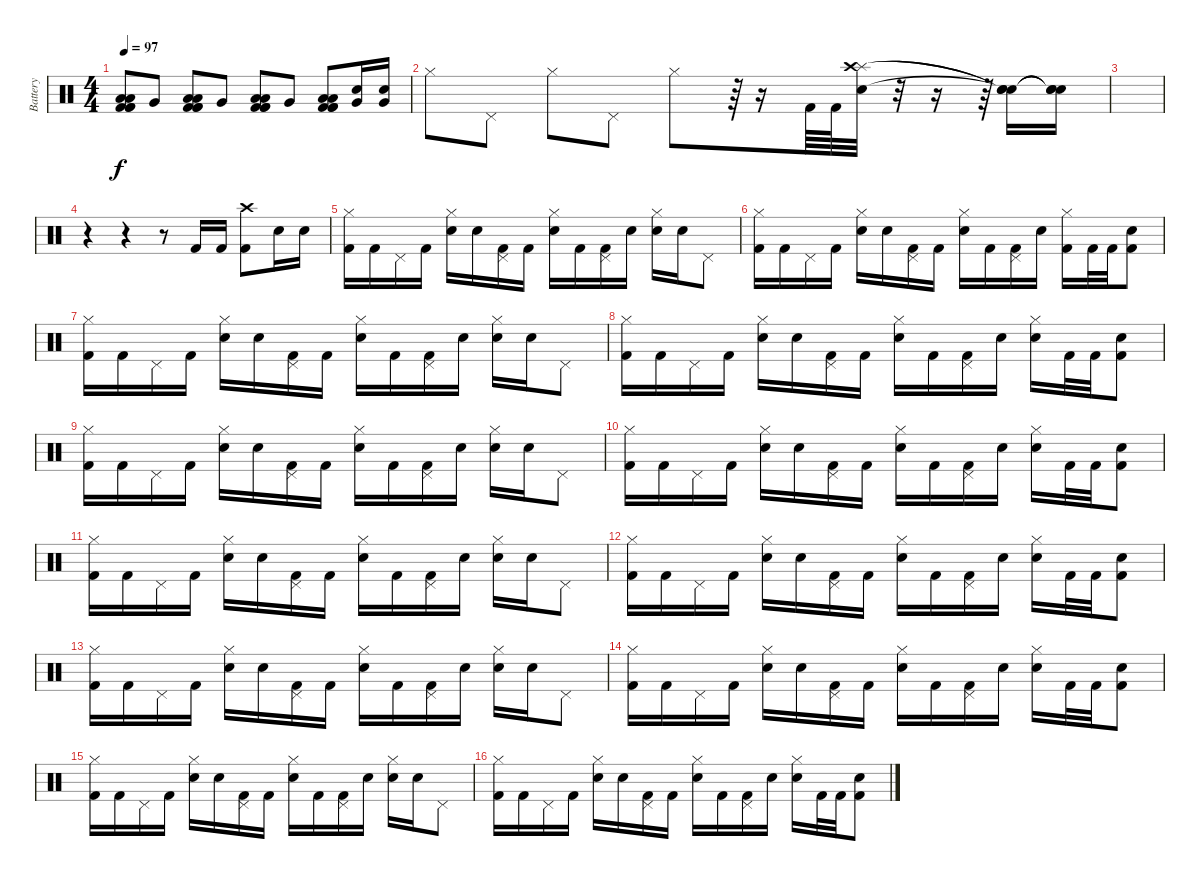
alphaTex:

\track ("Battery" "Battery") {instrument percussion}
\staff {score}
\articulation defaults
\ts (4 4)
\tempo 97
\clef neutral
\ks c
("Low Tom (hit)" "Kick (hit) 2" "Low Tom (hit)" "Kick (hit) 2" "Kick (hit) 2").8{dy f} "Very Low Tom (hit)".8 ("Low Floor Tom (hit)" "Kick (hit) 2" "Low Tom (hit)" "Kick (hit) 2" "Kick (hit) 2").8 "Very Low Tom (hit)".8 ("Low Tom (hit)" "Kick (hit) 2" "Low Tom (hit)" "Kick (hit) 2" "Kick (hit) 2").8 "Very Low Tom (hit)".8 ("Low Tom (hit)" "Kick (hit) 2" "Low Tom (hit)" "Kick (hit) 2" "Kick (hit) 2").8 ("Very Low Tom (hit)" "Snare (hit) 2").16 ("Very Low Tom (hit)" "Snare (hit) 2").16 |
"Hi-Hat (closed)".8 "Pedal Hi-Hat (hit)".8 "Hi-Hat (closed)".8 "Pedal Hi-Hat (hit)".8 "Hi-Hat (closed)".8 r.64 r.16 "Kick (hit) 2".64 "Kick (hit) 2".64 ("Snare (hit) 2" "Splash (hit)" "Crash high (hit)").32 r.32 r.16 r.64 ("Snare (hit)"{t} "Snare (hit)"{t} "Snare (hit)"{t}).16 ("Snare (hit)"{t} "Snare (hit)"{t} "Snare (hit)"{t}).16 |
|
r.4 r.4 r.8 "Kick (hit) 2".16 "Kick (hit) 2".16 ("Kick (hit) 2" "Crash high (hit)").8 "Electric Snare (hit)".16 "Electric Snare (hit)".16 |
("Kick (hit) 2" "Hi-Hat (closed)").16 "Kick (hit) 2".16 "Pedal Hi-Hat (hit)".16 "Kick (hit) 2".16 ("Snare (hit) 2" "Hi-Hat (closed)").16 "Snare (hit)".16 ("Kick (hit) 2" "Pedal Hi-Hat (hit)").16 "Kick (hit) 2".16 ("Snare (hit)" "Hi-Hat (closed)").16 "Kick (hit) 2".16 ("Kick (hit) 2" "Pedal Hi-Hat (hit)").16 "Snare (hit)".16 ("Snare (hit) 2" "Hi-Hat (closed)").16 "Snare (hit)".16 "Pedal Hi-Hat (hit)".8 |
("Kick (hit) 2" "Hi-Hat (closed)").16 "Kick (hit) 2".16 "Pedal Hi-Hat (hit)".16 "Kick (hit) 2".16 ("Snare (hit) 2" "Hi-Hat (closed)").16 "Snare (hit)".16 ("Kick (hit) 2" "Pedal Hi-Hat (hit)").16 "Kick (hit) 2".16 ("Snare (hit)" "Hi-Hat (closed)").16 "Kick (hit) 2".16 ("Kick (hit) 2" "Pedal Hi-Hat (hit)").16 "Snare (hit)".16 ("Kick (hit) 2" "Hi-Hat (closed)").16 "Kick (hit) 2".32 "Kick (hit) 2".32 ("Kick (hit) 2" "Snare (hit) 2").8 |
("Kick (hit) 2" "Hi-Hat (closed)").16 "Kick (hit) 2".16 "Pedal Hi-Hat (hit)".16 "Kick (hit) 2".16 ("Snare (hit) 2" "Hi-Hat (closed)").16 "Snare (hit)".16 ("Kick (hit) 2" "Pedal Hi-Hat (hit)").16 "Kick (hit) 2".16 ("Snare (hit)" "Hi-Hat (closed)").16 "Kick (hit) 2".16 ("Kick (hit) 2" "Pedal Hi-Hat (hit)").16 "Snare (hit)".16 ("Snare (hit) 2" "Hi-Hat (closed)").16 "Snare (hit)".16 "Pedal Hi-Hat (hit)".8 |
("Kick (hit) 2" "Hi-Hat (closed)").16 "Kick (hit) 2".16 "Pedal Hi-Hat (hit)".16 "Kick (hit) 2".16 ("Snare (hit) 2" "Hi-Hat (closed)").16 "Snare (hit)".16 ("Kick (hit) 2" "Pedal Hi-Hat (hit)").16 "Kick (hit) 2".16 ("Snare (hit)" "Hi-Hat (closed)").16 "Kick (hit) 2".16 ("Kick (hit) 2" "Pedal Hi-Hat (hit)").16 "Snare (hit)".16 ("Snare (hit) 2" "Hi-Hat (closed)").16 "Kick (hit) 2".32 "Kick (hit) 2".32 ("Kick (hit) 2" "Snare (hit) 2").8 |
("Kick (hit) 2" "Hi-Hat (closed)").16 "Kick (hit) 2".16 "Pedal Hi-Hat (hit)".16 "Kick (hit) 2".16 ("Snare (hit) 2" "Hi-Hat (closed)").16 "Snare (hit)".16 ("Kick (hit) 2" "Pedal Hi-Hat (hit)").16 "Kick (hit) 2".16 ("Snare (hit)" "Hi-Hat (closed)").16 "Kick (hit) 2".16 ("Kick (hit) 2" "Pedal Hi-Hat (hit)").16 "Snare (hit)".16 ("Snare (hit) 2" "Hi-Hat (closed)").16 "Snare (hit)".16 "Pedal Hi-Hat (hit)".8 |
("Kick (hit) 2" "Hi-Hat (closed)").16 "Kick (hit) 2".16 "Pedal Hi-Hat (hit)".16 "Kick (hit) 2".16 ("Snare (hit) 2" "Hi-Hat (closed)").16 "Snare (hit)".16 ("Kick (hit) 2" "Pedal Hi-Hat (hit)").16 "Kick (hit) 2".16 ("Snare (hit)" "Hi-Hat (closed)").16 "Kick (hit) 2".16 ("Kick (hit) 2" "Pedal Hi-Hat (hit)").16 "Snare (hit)".16 ("Snare (hit) 2" "Hi-Hat (closed)").16 "Kick (hit) 2".32 "Kick (hit) 2".32 ("Kick (hit) 2" "Snare (hit) 2").8 |
("Kick (hit) 2" "Hi-Hat (closed)").16 "Kick (hit) 2".16 "Pedal Hi-Hat (hit)".16 "Kick (hit) 2".16 ("Snare (hit) 2" "Hi-Hat (closed)").16 "Snare (hit)".16 ("Kick (hit) 2" "Pedal Hi-Hat (hit)").16 "Kick (hit) 2".16 ("Snare (hit)" "Hi-Hat (closed)").16 "Kick (hit) 2".16 ("Kick (hit) 2" "Pedal Hi-Hat (hit)").16 "Snare (hit)".16 ("Snare (hit) 2" "Hi-Hat (closed)").16 "Snare (hit)".16 "Pedal Hi-Hat (hit)".8 |
("Kick (hit) 2" "Hi-Hat (closed)").16 "Kick (hit) 2".16 "Pedal Hi-Hat (hit)".16 "Kick (hit) 2".16 ("Snare (hit) 2" "Hi-Hat (closed)").16 "Snare (hit)".16 ("Kick (hit) 2" "Pedal Hi-Hat (hit)").16 "Kick (hit) 2".16 ("Snare (hit)" "Hi-Hat (closed)").16 "Kick (hit) 2".16 ("Kick (hit) 2" "Pedal Hi-Hat (hit)").16 "Snare (hit)".16 ("Snare (hit) 2" "Hi-Hat (closed)").16 "Kick (hit) 2".32 "Kick (hit) 2".32 ("Kick (hit) 2" "Snare (hit) 2").8 |
("Kick (hit) 2" "Hi-Hat (closed)").16 "Kick (hit) 2".16 "Pedal Hi-Hat (hit)".16 "Kick (hit) 2".16 ("Snare (hit) 2" "Hi-Hat (closed)").16 "Snare (hit)".16 ("Kick (hit) 2" "Pedal Hi-Hat (hit)").16 "Kick (hit) 2".16 ("Snare (hit)" "Hi-Hat (closed)").16 "Kick (hit) 2".16 ("Kick (hit) 2" "Pedal Hi-Hat (hit)").16 "Snare (hit)".16 ("Snare (hit) 2" "Hi-Hat (closed)").16 "Snare (hit)".16 "Pedal Hi-Hat (hit)".8 |
("Kick (hit) 2" "Hi-Hat (closed)").16 "Kick (hit) 2".16 "Pedal Hi-Hat (hit)".16 "Kick (hit) 2".16 ("Snare (hit) 2" "Hi-Hat (closed)").16 "Snare (hit)".16 ("Kick (hit) 2" "Pedal Hi-Hat (hit)").16 "Kick (hit) 2".16 ("Snare (hit)" "Hi-Hat (closed)").16 "Kick (hit) 2".16 ("Kick (hit) 2" "Pedal Hi-Hat (hit)").16 "Snare (hit)".16 ("Snare (hit) 2" "Hi-Hat (closed)").16 "Kick (hit) 2".32 "Kick (hit) 2".32 ("Kick (hit) 2" "Snare (hit) 2").8 |
("Kick (hit) 2" "Hi-Hat (closed)").16 "Kick (hit) 2".16 "Pedal Hi-Hat (hit)".16 "Kick (hit) 2".16 ("Snare (hit) 2" "Hi-Hat (closed)").16 "Snare (hit)".16 ("Kick (hit) 2" "Pedal Hi-Hat (hit)").16 "Kick (hit) 2".16 ("Snare (hit)" "Hi-Hat (closed)").16 "Kick (hit) 2".16 ("Kick (hit) 2" "Pedal Hi-Hat (hit)").16 "Snare (hit)".16 ("Snare (hit) 2" "Hi-Hat (closed)").16 "Snare (hit)".16 "Pedal Hi-Hat (hit)".8 |
("Kick (hit) 2" "Hi-Hat (closed)").16 "Kick (hit) 2".16 "Pedal Hi-Hat (hit)".16 "Kick (hit) 2".16 ("Snare (hit) 2" "Hi-Hat (closed)").16 "Snare (hit)".16 ("Kick (hit) 2" "Pedal Hi-Hat (hit)").16 "Kick (hit) 2".16 ("Snare (hit)" "Hi-Hat (closed)").16 "Kick (hit) 2".16 ("Kick (hit) 2" "Pedal Hi-Hat (hit)").16 "Snare (hit)".16 ("Snare (hit) 2" "Hi-Hat (closed)").16 "Kick (hit) 2".32 "Kick (hit) 2".32 ("Kick (hit) 2" "Snare (hit) 2").8
